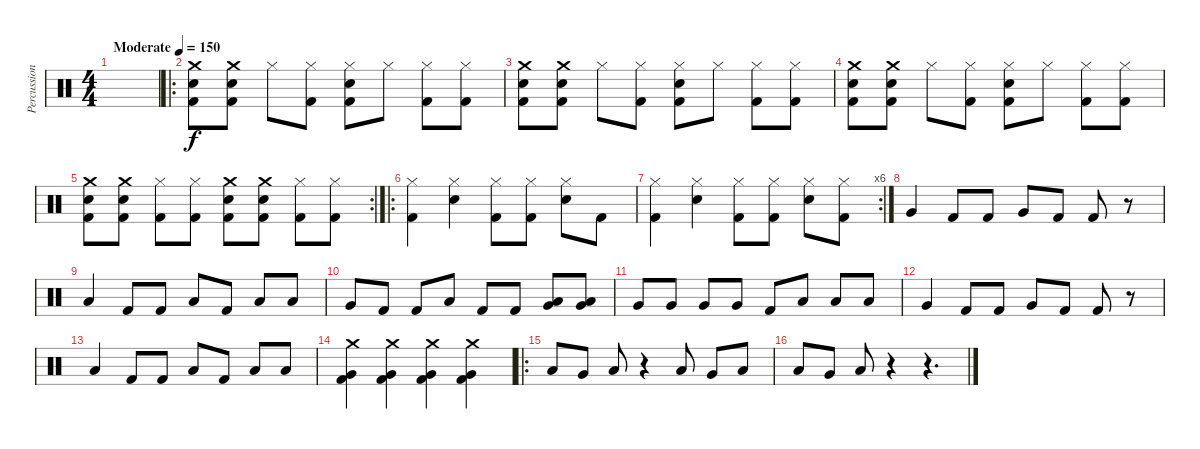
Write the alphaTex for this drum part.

\track ("Percussion" "Percussion") {instrument percussion}
\staff {score}
\articulation defaults
\ts (4 4)
\tempo (150 "Moderate")
\clef neutral
\ks c
|
\ro
("Crash medium (hit)" "Snare (hit) 2" "Kick (hit) 2").8 ("Crash medium (hit)" "Snare (hit) 2" "Kick (hit) 2").8 "Hi-Hat (closed)".8 ("Hi-Hat (closed)" "Kick (hit) 2").8 ("Hi-Hat (closed)" "Snare (hit) 2" "Kick (hit) 2").8 "Hi-Hat (closed)".8 ("Hi-Hat (closed)" "Kick (hit) 2").8 ("Hi-Hat (closed)" "Kick (hit) 2").8 |
("Crash medium (hit)" "Snare (hit) 2" "Kick (hit) 2").8 ("Crash medium (hit)" "Snare (hit) 2" "Kick (hit) 2").8 "Hi-Hat (closed)".8 ("Hi-Hat (closed)" "Kick (hit) 2").8 ("Hi-Hat (closed)" "Snare (hit) 2" "Kick (hit) 2").8 "Hi-Hat (closed)".8 ("Hi-Hat (closed)" "Kick (hit) 2").8 ("Hi-Hat (closed)" "Kick (hit) 2").8 |
("Crash medium (hit)" "Snare (hit) 2" "Kick (hit) 2").8 ("Crash medium (hit)" "Snare (hit) 2" "Kick (hit) 2").8 "Hi-Hat (closed)".8 ("Hi-Hat (closed)" "Kick (hit) 2").8 ("Hi-Hat (closed)" "Snare (hit) 2" "Kick (hit) 2").8 "Hi-Hat (closed)".8 ("Hi-Hat (closed)" "Kick (hit) 2").8 ("Hi-Hat (closed)" "Kick (hit) 2").8 |
\rc 2
("Crash medium (hit)" "Snare (hit) 2" "Kick (hit) 2").8 ("Crash medium (hit)" "Snare (hit) 2" "Kick (hit) 2").8 ("Hi-Hat (closed)" "Kick (hit) 2").8 ("Hi-Hat (closed)" "Kick (hit) 2").8 ("Crash medium (hit)" "Snare (hit) 2" "Kick (hit) 2").8 ("Crash medium (hit)" "Snare (hit) 2" "Kick (hit) 2").8 ("Hi-Hat (closed)" "Kick (hit) 2").8 ("Hi-Hat (closed)" "Kick (hit) 2").8 |
\ro
("Hi-Hat (closed)" "Kick (hit) 2").4 ("Hi-Hat (closed)" "Snare (hit) 2").4 ("Hi-Hat (closed)" "Kick (hit) 2").8 ("Hi-Hat (closed)" "Kick (hit) 2").8 ("Hi-Hat (closed)" "Snare (hit) 2").8 "Kick (hit) 2".8 |
\rc 6
("Hi-Hat (closed)" "Kick (hit) 2").4 ("Hi-Hat (closed)" "Snare (hit) 2").4 ("Hi-Hat (closed)" "Kick (hit) 2").8 ("Hi-Hat (closed)" "Kick (hit) 2").8 ("Hi-Hat (closed)" "Snare (hit) 2").8 ("Hi-Hat (closed)" "Kick (hit) 2").8 |
"Very Low Tom (hit)".4 "Kick (hit) 2".8 "Kick (hit) 2".8 "Very Low Tom (hit)".8 "Kick (hit) 2".8 "Kick (hit) 2".8 r.8 |
"Low Tom (hit)".4 "Kick (hit) 2".8 "Kick (hit) 2".8 "Low Tom (hit)".8 "Kick (hit) 2".8 "Low Tom (hit)".8 "Low Tom (hit)".8 |
"Very Low Tom (hit)".8 "Kick (hit) 2".8 "Kick (hit) 2".8 "Low Tom (hit)".8 "Kick (hit) 2".8 "Kick (hit) 2".8 ("Very Low Tom (hit)" "Low Tom (hit)").8 ("Low Tom (hit)" "Very Low Tom (hit)").8 |
"Very Low Tom (hit)".8 "Very Low Tom (hit)".8 "Very Low Tom (hit)".8 "Very Low Tom (hit)".8 "Kick (hit) 2".8 "Low Tom (hit)".8 "Low Tom (hit)".8 "Low Tom (hit)".8 |
"Very Low Tom (hit)".4 "Kick (hit) 2".8 "Kick (hit) 2".8 "Very Low Tom (hit)".8 "Kick (hit) 2".8 "Kick (hit) 2".8 r.8 |
"Low Tom (hit)".4 "Kick (hit) 2".8 "Kick (hit) 2".8 "Low Tom (hit)".8 "Kick (hit) 2".8 "Low Tom (hit)".8 "Low Tom (hit)".8 |
("Very Low Tom (hit)" "Crash medium (hit)" "Kick (hit) 2").4 ("Very Low Tom (hit)" "Crash medium (hit)" "Kick (hit) 2").4 ("Very Low Tom (hit)" "Crash medium (hit)" "Kick (hit) 2").4 ("Very Low Tom (hit)" "Crash medium (hit)" "Kick (hit) 2").4 |
\ro "Low Tom (hit)".8 "Very Low Tom (hit)".8 "Low Tom (hit)".8
r.4 "Low Tom (hit)".8 "Very Low Tom (hit)".8 "Low Tom (hit)".8 |
"Low Tom (hit)".8 "Very Low Tom (hit)".8 "Low Tom (hit)".8 r.4 r.4{d}
